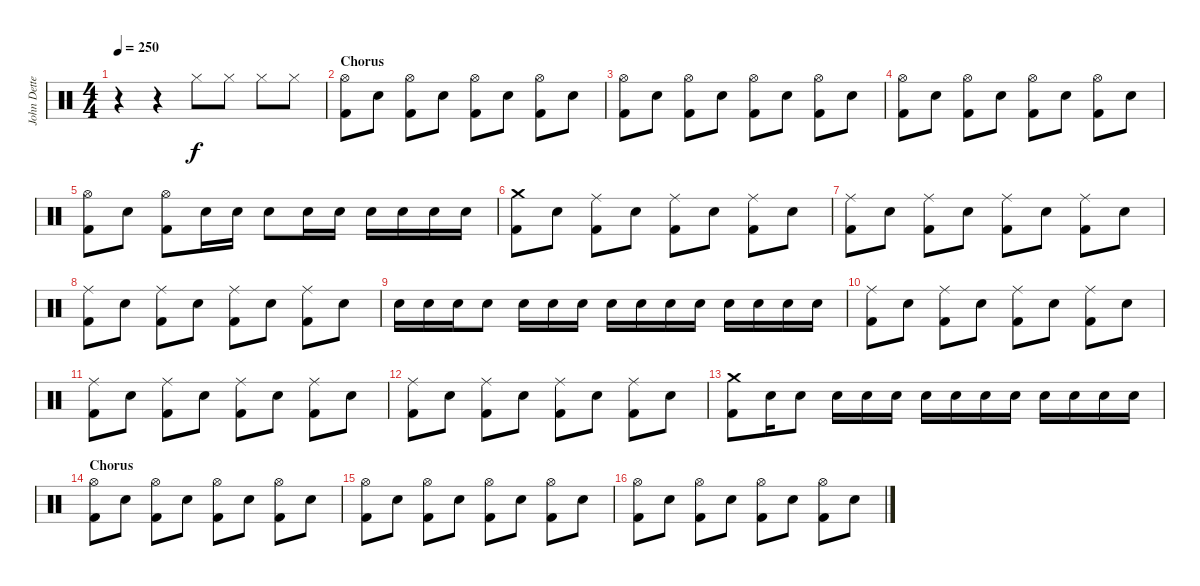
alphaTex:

\track ("John Dette" "John Dette") {instrument percussion}
\staff {score}
\articulation defaults
\ts (4 4)
\tempo 250
\clef neutral
\ks c
r.4{dy f} r.4 "Hi-Hat (closed)".8 "Hi-Hat (closed)".8 "Hi-Hat (closed)".8 "Hi-Hat (closed)".8 |
\section ("" "Chorus")
("Hi-Hat (open)" "Kick (hit) 2").8 "Snare (hit) 2".8 ("Hi-Hat (open)" "Kick (hit) 2").8 "Snare (hit) 2".8 ("Hi-Hat (open)" "Kick (hit) 2").8 "Snare (hit) 2".8 ("Hi-Hat (open)" "Kick (hit) 2").8 "Snare (hit) 2".8 |
("Hi-Hat (open)" "Kick (hit) 2").8 "Snare (hit) 2".8 ("Hi-Hat (open)" "Kick (hit) 2").8 "Snare (hit) 2".8 ("Hi-Hat (open)" "Kick (hit) 2").8 "Snare (hit) 2".8 ("Hi-Hat (open)" "Kick (hit) 2").8 "Snare (hit) 2".8 |
("Hi-Hat (open)" "Kick (hit) 2").8 "Snare (hit) 2".8 ("Hi-Hat (open)" "Kick (hit) 2").8 "Snare (hit) 2".8 ("Hi-Hat (open)" "Kick (hit) 2").8 "Snare (hit) 2".8 ("Hi-Hat (open)" "Kick (hit) 2").8 "Snare (hit) 2".8 |
("Hi-Hat (open)" "Kick (hit) 2").8 "Snare (hit) 2".8 ("Hi-Hat (open)" "Kick (hit) 2").8 "Snare (hit) 2".16 "Snare (hit) 2".16 "Snare (hit) 2".8 "Snare (hit) 2".16 "Snare (hit) 2".16 "Snare (hit) 2".16 "Snare (hit) 2".16 "Snare (hit) 2".16 "Snare (hit) 2".16 |
("Crash medium (hit)" "Kick (hit) 2").8 "Snare (hit) 2".8 ("Ride (middle)" "Kick (hit) 2").8 "Snare (hit) 2".8 ("Ride (middle)" "Kick (hit) 2").8 "Snare (hit) 2".8 ("Ride (middle)" "Kick (hit) 2").8 "Snare (hit) 2".8 |
("Ride (middle)" "Kick (hit) 2").8 "Snare (hit) 2".8 ("Ride (middle)" "Kick (hit) 2").8 "Snare (hit) 2".8 ("Ride (middle)" "Kick (hit) 2").8 "Snare (hit) 2".8 ("Ride (middle)" "Kick (hit) 2").8 "Snare (hit) 2".8 |
("Ride (middle)" "Kick (hit) 2").8 "Snare (hit) 2".8 ("Ride (middle)" "Kick (hit) 2").8 "Snare (hit) 2".8 ("Ride (middle)" "Kick (hit) 2").8 "Snare (hit) 2".8 ("Ride (middle)" "Kick (hit) 2").8 "Snare (hit) 2".8 |
"Snare (hit) 2".16 "Snare (hit) 2".16 "Snare (hit) 2".16 "Snare (hit) 2".8 "Snare (hit) 2".16 "Snare (hit) 2".16 "Snare (hit) 2".16 "Snare (hit) 2".16 "Snare (hit) 2".16 "Snare (hit) 2".16 "Snare (hit) 2".16 "Snare (hit) 2".16 "Snare (hit) 2".16 "Snare (hit) 2".16 "Snare (hit) 2".16 |
("Ride (middle)" "Kick (hit) 2").8 "Snare (hit) 2".8 ("Ride (middle)" "Kick (hit) 2").8 "Snare (hit) 2".8 ("Ride (middle)" "Kick (hit) 2").8 "Snare (hit) 2".8 ("Ride (middle)" "Kick (hit) 2").8 "Snare (hit) 2".8 |
("Ride (middle)" "Kick (hit) 2").8 "Snare (hit) 2".8 ("Ride (middle)" "Kick (hit) 2").8 "Snare (hit) 2".8 ("Ride (middle)" "Kick (hit) 2").8 "Snare (hit) 2".8 ("Ride (middle)" "Kick (hit) 2").8 "Snare (hit) 2".8 |
("Ride (middle)" "Kick (hit) 2").8 "Snare (hit) 2".8 ("Ride (middle)" "Kick (hit) 2").8 "Snare (hit) 2".8 ("Ride (middle)" "Kick (hit) 2").8 "Snare (hit) 2".8 ("Ride (middle)" "Kick (hit) 2").8 "Snare (hit) 2".8 |
("Crash medium (hit)" "Kick (hit) 2").8 "Snare (hit) 2".16 "Snare (hit) 2".8 "Snare (hit) 2".16 "Snare (hit) 2".16 "Snare (hit) 2".16 "Snare (hit) 2".16 "Snare (hit) 2".16 "Snare (hit) 2".16 "Snare (hit) 2".16 "Snare (hit) 2".16 "Snare (hit) 2".16 "Snare (hit) 2".16 "Snare (hit) 2".16 |
\section ("" "Chorus")
("Hi-Hat (open)" "Kick (hit) 2").8 "Snare (hit) 2".8 ("Hi-Hat (open)" "Kick (hit) 2").8 "Snare (hit) 2".8 ("Hi-Hat (open)" "Kick (hit) 2").8 "Snare (hit) 2".8 ("Hi-Hat (open)" "Kick (hit) 2").8 "Snare (hit) 2".8 |
("Hi-Hat (open)" "Kick (hit) 2").8 "Snare (hit) 2".8 ("Hi-Hat (open)" "Kick (hit) 2").8 "Snare (hit) 2".8 ("Hi-Hat (open)" "Kick (hit) 2").8 "Snare (hit) 2".8 ("Hi-Hat (open)" "Kick (hit) 2").8 "Snare (hit) 2".8 |
("Hi-Hat (open)" "Kick (hit) 2").8 "Snare (hit) 2".8 ("Hi-Hat (open)" "Kick (hit) 2").8 "Snare (hit) 2".8 ("Hi-Hat (open)" "Kick (hit) 2").8 "Snare (hit) 2".8 ("Hi-Hat (open)" "Kick (hit) 2").8 "Snare (hit) 2".8
